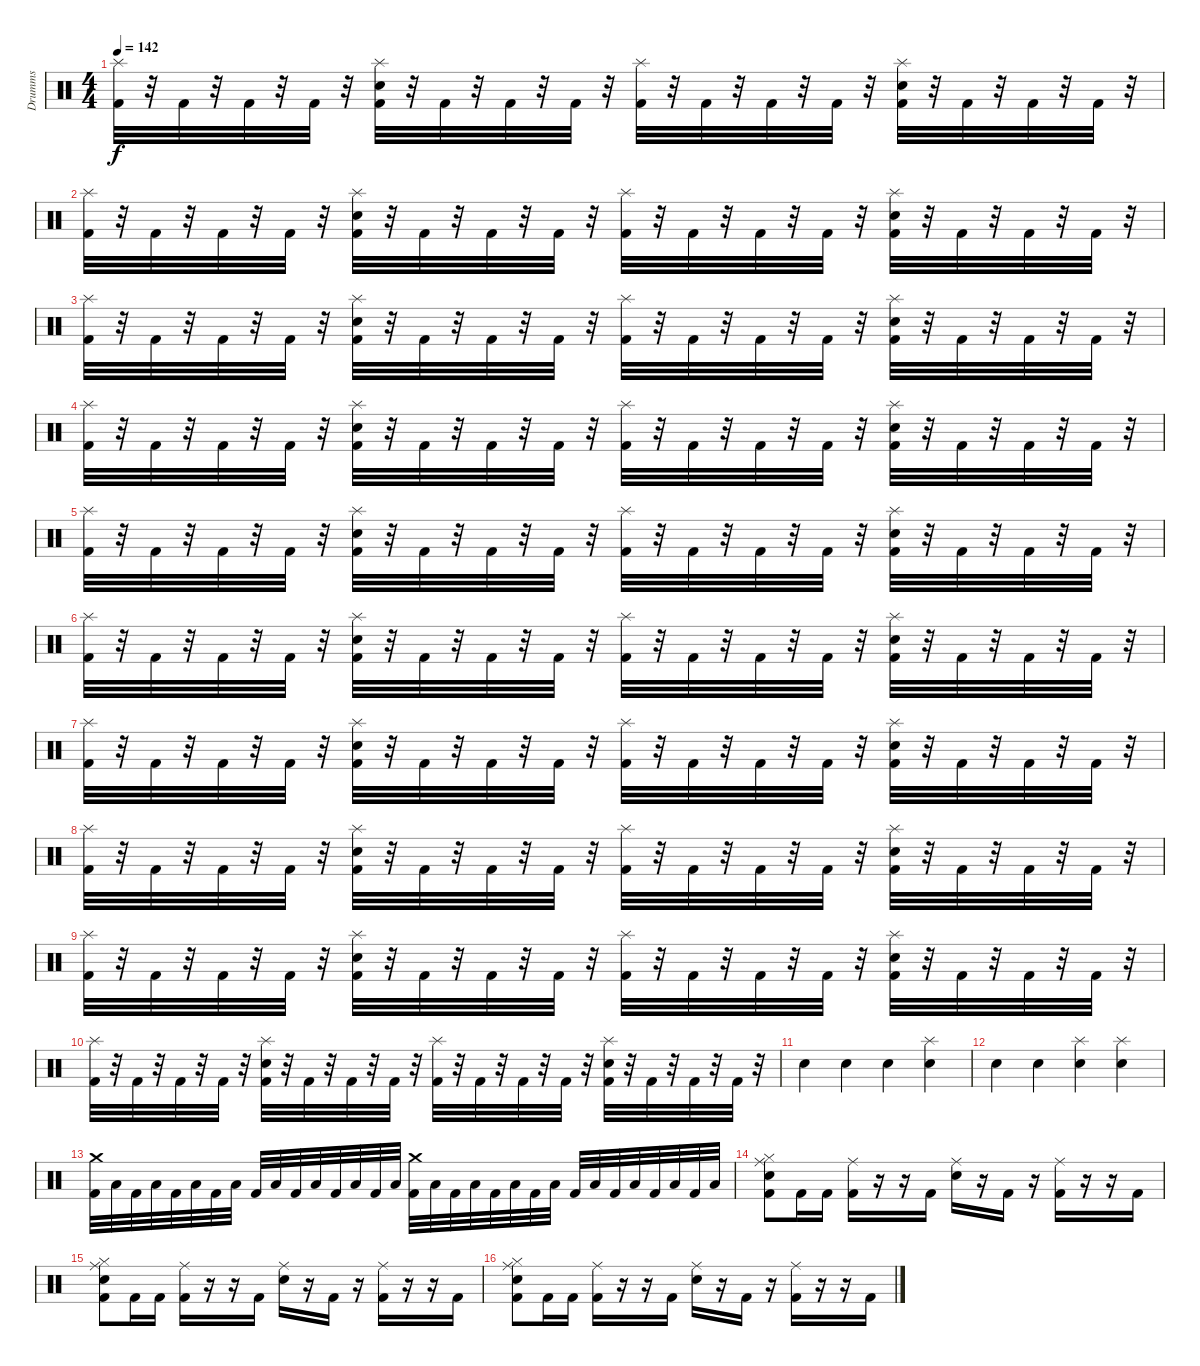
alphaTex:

\track ("Drumms" "Drumms") {instrument percussion}
\staff {score}
\articulation defaults
\ts (4 4)
\tempo 142
\clef neutral
\ks c
("Splash (hit)" "Kick (hit) 2").32{dy f} r.32 "Kick (hit) 2".32 r.32 "Kick (hit) 2".32 r.32 "Kick (hit) 2".32 r.32 ("Splash (hit)" "Kick (hit) 2" "Electric Snare (hit)").32 r.32 "Kick (hit) 2".32 r.32 "Kick (hit) 2".32 r.32 "Kick (hit) 2".32 r.32 ("Splash (hit)" "Kick (hit) 2").32 r.32 "Kick (hit) 2".32 r.32 "Kick (hit) 2".32 r.32 "Kick (hit) 2".32 r.32 ("Splash (hit)" "Kick (hit) 2" "Electric Snare (hit)").32 r.32 "Kick (hit) 2".32 r.32 "Kick (hit) 2".32 r.32 "Kick (hit) 2".32 r.32 |
("Splash (hit)" "Kick (hit) 2").32 r.32 "Kick (hit) 2".32 r.32 "Kick (hit) 2".32 r.32 "Kick (hit) 2".32 r.32 ("Splash (hit)" "Kick (hit) 2" "Electric Snare (hit)").32 r.32 "Kick (hit) 2".32 r.32 "Kick (hit) 2".32 r.32 "Kick (hit) 2".32 r.32 ("Splash (hit)" "Kick (hit) 2").32 r.32 "Kick (hit) 2".32 r.32 "Kick (hit) 2".32 r.32 "Kick (hit) 2".32 r.32 ("Splash (hit)" "Kick (hit) 2" "Electric Snare (hit)").32 r.32 "Kick (hit) 2".32 r.32 "Kick (hit) 2".32 r.32 "Kick (hit) 2".32 r.32 |
("Splash (hit)" "Kick (hit) 2").32 r.32 "Kick (hit) 2".32 r.32 "Kick (hit) 2".32 r.32 "Kick (hit) 2".32 r.32 ("Splash (hit)" "Kick (hit) 2" "Electric Snare (hit)").32 r.32 "Kick (hit) 2".32 r.32 "Kick (hit) 2".32 r.32 "Kick (hit) 2".32 r.32 ("Splash (hit)" "Kick (hit) 2").32 r.32 "Kick (hit) 2".32 r.32 "Kick (hit) 2".32 r.32 "Kick (hit) 2".32 r.32 ("Splash (hit)" "Kick (hit) 2" "Electric Snare (hit)").32 r.32 "Kick (hit) 2".32 r.32 "Kick (hit) 2".32 r.32 "Kick (hit) 2".32 r.32 |
("Splash (hit)" "Kick (hit) 2").32 r.32 "Kick (hit) 2".32 r.32 "Kick (hit) 2".32 r.32 "Kick (hit) 2".32 r.32 ("Splash (hit)" "Kick (hit) 2" "Electric Snare (hit)").32 r.32 "Kick (hit) 2".32 r.32 "Kick (hit) 2".32 r.32 "Kick (hit) 2".32 r.32 ("Splash (hit)" "Kick (hit) 2").32 r.32 "Kick (hit) 2".32 r.32 "Kick (hit) 2".32 r.32 "Kick (hit) 2".32 r.32 ("Splash (hit)" "Kick (hit) 2" "Electric Snare (hit)").32 r.32 "Kick (hit) 2".32 r.32 "Kick (hit) 2".32 r.32 "Kick (hit) 2".32 r.32 |
("Splash (hit)" "Kick (hit) 2").32 r.32 "Kick (hit) 2".32 r.32 "Kick (hit) 2".32 r.32 "Kick (hit) 2".32 r.32 ("Splash (hit)" "Kick (hit) 2" "Electric Snare (hit)").32 r.32 "Kick (hit) 2".32 r.32 "Kick (hit) 2".32 r.32 "Kick (hit) 2".32 r.32 ("Splash (hit)" "Kick (hit) 2").32 r.32 "Kick (hit) 2".32 r.32 "Kick (hit) 2".32 r.32 "Kick (hit) 2".32 r.32 ("Splash (hit)" "Kick (hit) 2" "Electric Snare (hit)").32 r.32 "Kick (hit) 2".32 r.32 "Kick (hit) 2".32 r.32 "Kick (hit) 2".32 r.32 |
("Splash (hit)" "Kick (hit) 2").32 r.32 "Kick (hit) 2".32 r.32 "Kick (hit) 2".32 r.32 "Kick (hit) 2".32 r.32 ("Splash (hit)" "Kick (hit) 2" "Electric Snare (hit)").32 r.32 "Kick (hit) 2".32 r.32 "Kick (hit) 2".32 r.32 "Kick (hit) 2".32 r.32 ("Splash (hit)" "Kick (hit) 2").32 r.32 "Kick (hit) 2".32 r.32 "Kick (hit) 2".32 r.32 "Kick (hit) 2".32 r.32 ("Splash (hit)" "Kick (hit) 2" "Electric Snare (hit)").32 r.32 "Kick (hit) 2".32 r.32 "Kick (hit) 2".32 r.32 "Kick (hit) 2".32 r.32 |
("Splash (hit)" "Kick (hit) 2").32 r.32 "Kick (hit) 2".32 r.32 "Kick (hit) 2".32 r.32 "Kick (hit) 2".32 r.32 ("Splash (hit)" "Kick (hit) 2" "Electric Snare (hit)").32 r.32 "Kick (hit) 2".32 r.32 "Kick (hit) 2".32 r.32 "Kick (hit) 2".32 r.32 ("Splash (hit)" "Kick (hit) 2").32 r.32 "Kick (hit) 2".32 r.32 "Kick (hit) 2".32 r.32 "Kick (hit) 2".32 r.32 ("Splash (hit)" "Kick (hit) 2" "Electric Snare (hit)").32 r.32 "Kick (hit) 2".32 r.32 "Kick (hit) 2".32 r.32 "Kick (hit) 2".32 r.32 |
("Splash (hit)" "Kick (hit) 2").32 r.32 "Kick (hit) 2".32 r.32 "Kick (hit) 2".32 r.32 "Kick (hit) 2".32 r.32 ("Splash (hit)" "Kick (hit) 2" "Electric Snare (hit)").32 r.32 "Kick (hit) 2".32 r.32 "Kick (hit) 2".32 r.32 "Kick (hit) 2".32 r.32 ("Splash (hit)" "Kick (hit) 2").32 r.32 "Kick (hit) 2".32 r.32 "Kick (hit) 2".32 r.32 "Kick (hit) 2".32 r.32 ("Splash (hit)" "Kick (hit) 2" "Electric Snare (hit)").32 r.32 "Kick (hit) 2".32 r.32 "Kick (hit) 2".32 r.32 "Kick (hit) 2".32 r.32 |
("Splash (hit)" "Kick (hit) 2").32 r.32 "Kick (hit) 2".32 r.32 "Kick (hit) 2".32 r.32 "Kick (hit) 2".32 r.32 ("Splash (hit)" "Kick (hit) 2" "Electric Snare (hit)").32 r.32 "Kick (hit) 2".32 r.32 "Kick (hit) 2".32 r.32 "Kick (hit) 2".32 r.32 ("Splash (hit)" "Kick (hit) 2").32 r.32 "Kick (hit) 2".32 r.32 "Kick (hit) 2".32 r.32 "Kick (hit) 2".32 r.32 ("Splash (hit)" "Kick (hit) 2" "Electric Snare (hit)").32 r.32 "Kick (hit) 2".32 r.32 "Kick (hit) 2".32 r.32 "Kick (hit) 2".32 r.32 |
("Splash (hit)" "Kick (hit) 2").32 r.32 "Kick (hit) 2".32 r.32 "Kick (hit) 2".32 r.32 "Kick (hit) 2".32 r.32 ("Splash (hit)" "Kick (hit) 2" "Electric Snare (hit)").32 r.32 "Kick (hit) 2".32 r.32 "Kick (hit) 2".32 r.32 "Kick (hit) 2".32 r.32 ("Splash (hit)" "Kick (hit) 2").32 r.32 "Kick (hit) 2".32 r.32 "Kick (hit) 2".32 r.32 "Kick (hit) 2".32 r.32 ("Splash (hit)" "Kick (hit) 2" "Electric Snare (hit)").32 r.32 "Kick (hit) 2".32 r.32 "Kick (hit) 2".32 r.32 "Kick (hit) 2".32 r.32 |
"Electric Snare (hit)".4 "Electric Snare (hit)".4 "Electric Snare (hit)".4 ("Splash (hit)" "Snare (hit) 2").4 |
"Electric Snare (hit)".4 "Electric Snare (hit)".4 ("Splash (hit)" "Electric Snare (hit)").4 ("Splash (hit)" "Snare (hit) 2").4 |
("Crash medium (hit)" "Kick (hit) 2").32 "Low Floor Tom (hit)".32 "Kick (hit) 2".32 "Low Floor Tom (hit)".32 "Kick (hit) 2".32 "Low Floor Tom (hit)".32 "Kick (hit) 2".32 "Low Floor Tom (hit)".32 "Kick (hit) 2".32 "Low Floor Tom (hit)".32 "Kick (hit) 2".32 "Low Floor Tom (hit)".32 "Kick (hit) 2".32 "Low Floor Tom (hit)".32 "Kick (hit) 2".32 "Low Floor Tom (hit)".32 ("Crash medium (hit)" "Kick (hit) 2").32 "Low Floor Tom (hit)".32 "Kick (hit) 2".32 "Low Floor Tom (hit)".32 "Kick (hit) 2".32 "Low Floor Tom (hit)".32 "Kick (hit) 2".32 "Low Floor Tom (hit)".32 "Kick (hit) 2".32 "Low Floor Tom (hit)".32 "Kick (hit) 2".32 "Low Floor Tom (hit)".32 "Kick (hit) 2".32 "Low Floor Tom (hit)".32 "Kick (hit) 2".32 "Low Floor Tom (hit)".32 |
("Ride (middle)" "Hi-Hat (closed)" "Kick (hit) 2" "Snare (hit) 2").8 "Kick (hit) 2".16 "Kick (hit) 2".16 ("Ride (middle)" "Kick (hit) 2").16 r.16 r.16 "Kick (hit) 2".16 ("Ride (middle)" "Snare (hit) 2").16 r.16 "Kick (hit) 2".16 r.16 ("Ride (middle)" "Kick (hit) 2").16 r.16 r.16 "Kick (hit) 2".16 |
("Ride (middle)" "Hi-Hat (closed)" "Kick (hit) 2" "Snare (hit) 2").8 "Kick (hit) 2".16 "Kick (hit) 2".16 ("Ride (middle)" "Kick (hit) 2").16 r.16 r.16 "Kick (hit) 2".16 ("Ride (middle)" "Snare (hit) 2").16 r.16 "Kick (hit) 2".16 r.16 ("Ride (middle)" "Kick (hit) 2").16 r.16 r.16 "Kick (hit) 2".16 |
("Ride (middle)" "Hi-Hat (closed)" "Kick (hit) 2" "Snare (hit) 2").8 "Kick (hit) 2".16 "Kick (hit) 2".16 ("Ride (middle)" "Kick (hit) 2").16 r.16 r.16 "Kick (hit) 2".16 ("Ride (middle)" "Snare (hit) 2").16 r.16 "Kick (hit) 2".16 r.16 ("Ride (middle)" "Kick (hit) 2").16 r.16 r.16 "Kick (hit) 2".16
